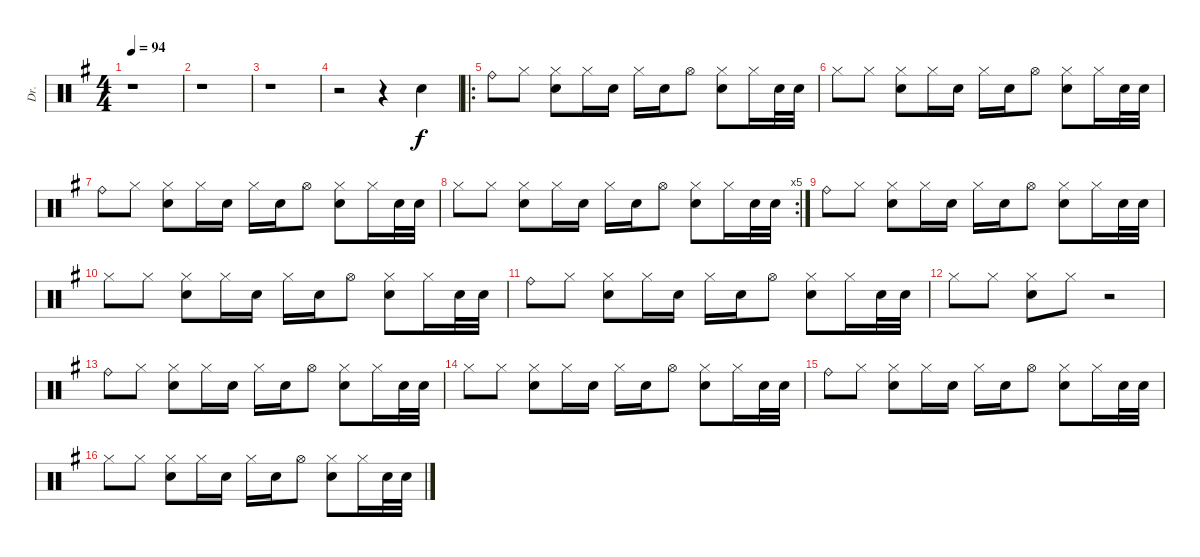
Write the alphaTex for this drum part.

\track ("Dr." "Dr.") {instrument percussion}
\staff {score}
\articulation defaults
\ts (4 4)
\tempo 94
\clef neutral
\ks g
r.1{dy f volume 16} |
r.1 |
r.1 |
r.2 r.4 "Electric Snare (hit)".4 |
\ro "Ride (bell)".8 "Hi-Hat (closed)".8
("Hi-Hat (closed)" "Electric Snare (hit)").8 "Hi-Hat (closed)".16 "Electric Snare (hit)".16 "Hi-Hat (closed)".16 "Electric Snare (hit)".16 "Hi-Hat (open)".8 ("Hi-Hat (closed)" "Electric Snare (hit)").8 "Hi-Hat (closed)".16 "Electric Snare (hit)".32 "Electric Snare (hit)".32 |
"Hi-Hat (closed)".8 "Hi-Hat (closed)".8 ("Hi-Hat (closed)" "Electric Snare (hit)").8 "Hi-Hat (closed)".16 "Electric Snare (hit)".16 "Hi-Hat (closed)".16 "Electric Snare (hit)".16 "Hi-Hat (open)".8 ("Hi-Hat (closed)" "Electric Snare (hit)").8 "Hi-Hat (closed)".16 "Electric Snare (hit)".32 "Electric Snare (hit)".32 |
"Ride (bell)".8 "Hi-Hat (closed)".8 ("Hi-Hat (closed)" "Electric Snare (hit)").8 "Hi-Hat (closed)".16 "Electric Snare (hit)".16 "Hi-Hat (closed)".16 "Electric Snare (hit)".16 "Hi-Hat (open)".8 ("Hi-Hat (closed)" "Electric Snare (hit)").8 "Hi-Hat (closed)".16 "Electric Snare (hit)".32 "Electric Snare (hit)".32 |
\rc 5 "Hi-Hat (closed)".8 "Hi-Hat (closed)".8
("Hi-Hat (closed)" "Electric Snare (hit)").8 "Hi-Hat (closed)".16 "Electric Snare (hit)".16 "Hi-Hat (closed)".16 "Electric Snare (hit)".16 "Hi-Hat (open)".8 ("Hi-Hat (closed)" "Electric Snare (hit)").8 "Hi-Hat (closed)".16 "Electric Snare (hit)".32 "Electric Snare (hit)".32 |
"Ride (bell)".8 "Hi-Hat (closed)".8 ("Hi-Hat (closed)" "Electric Snare (hit)").8 "Hi-Hat (closed)".16 "Electric Snare (hit)".16 "Hi-Hat (closed)".16 "Electric Snare (hit)".16 "Hi-Hat (open)".8 ("Hi-Hat (closed)" "Electric Snare (hit)").8 "Hi-Hat (closed)".16 "Electric Snare (hit)".32 "Electric Snare (hit)".32 |
"Hi-Hat (closed)".8 "Hi-Hat (closed)".8 ("Hi-Hat (closed)" "Electric Snare (hit)").8 "Hi-Hat (closed)".16 "Electric Snare (hit)".16 "Hi-Hat (closed)".16 "Electric Snare (hit)".16 "Hi-Hat (open)".8 ("Hi-Hat (closed)" "Electric Snare (hit)").8 "Hi-Hat (closed)".16 "Electric Snare (hit)".32 "Electric Snare (hit)".32 |
"Ride (bell)".8 "Hi-Hat (closed)".8 ("Hi-Hat (closed)" "Electric Snare (hit)").8 "Hi-Hat (closed)".16 "Electric Snare (hit)".16 "Hi-Hat (closed)".16 "Electric Snare (hit)".16 "Hi-Hat (open)".8 ("Hi-Hat (closed)" "Electric Snare (hit)").8 "Hi-Hat (closed)".16 "Electric Snare (hit)".32 "Electric Snare (hit)".32 |
"Hi-Hat (closed)".8 "Hi-Hat (closed)".8 ("Hi-Hat (closed)" "Electric Snare (hit)").8 "Hi-Hat (closed)".8 r.2 |
"Ride (bell)".8 "Hi-Hat (closed)".8 ("Hi-Hat (closed)" "Electric Snare (hit)").8 "Hi-Hat (closed)".16 "Electric Snare (hit)".16 "Hi-Hat (closed)".16 "Electric Snare (hit)".16 "Hi-Hat (open)".8 ("Hi-Hat (closed)" "Electric Snare (hit)").8 "Hi-Hat (closed)".16 "Electric Snare (hit)".32 "Electric Snare (hit)".32 |
"Hi-Hat (closed)".8 "Hi-Hat (closed)".8 ("Hi-Hat (closed)" "Electric Snare (hit)").8 "Hi-Hat (closed)".16 "Electric Snare (hit)".16 "Hi-Hat (closed)".16 "Electric Snare (hit)".16 "Hi-Hat (open)".8 ("Hi-Hat (closed)" "Electric Snare (hit)").8 "Hi-Hat (closed)".16 "Electric Snare (hit)".32 "Electric Snare (hit)".32 |
"Ride (bell)".8 "Hi-Hat (closed)".8 ("Hi-Hat (closed)" "Electric Snare (hit)").8 "Hi-Hat (closed)".16 "Electric Snare (hit)".16 "Hi-Hat (closed)".16 "Electric Snare (hit)".16 "Hi-Hat (open)".8 ("Hi-Hat (closed)" "Electric Snare (hit)").8 "Hi-Hat (closed)".16 "Electric Snare (hit)".32 "Electric Snare (hit)".32 |
"Hi-Hat (closed)".8 "Hi-Hat (closed)".8 ("Hi-Hat (closed)" "Electric Snare (hit)").8 "Hi-Hat (closed)".16 "Electric Snare (hit)".16 "Hi-Hat (closed)".16 "Electric Snare (hit)".16 "Hi-Hat (open)".8 ("Hi-Hat (closed)" "Electric Snare (hit)").8 "Hi-Hat (closed)".16 "Electric Snare (hit)".32 "Electric Snare (hit)".32
